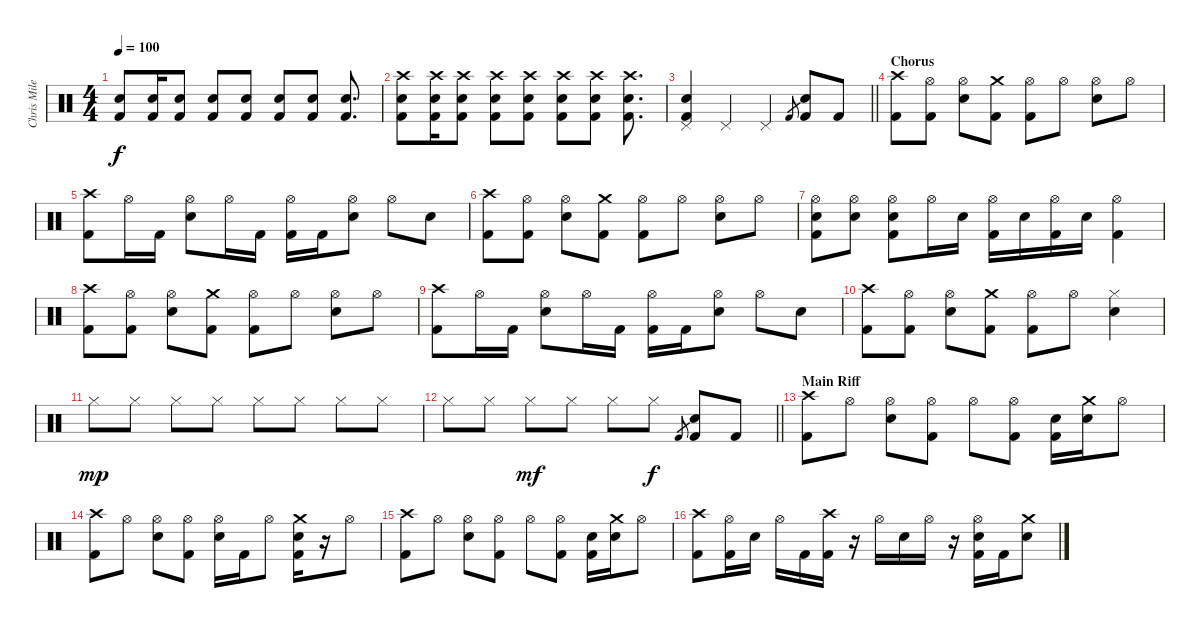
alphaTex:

\track ("Chris Mileski" "Chris Mile") {instrument percussion}
\staff {score}
\articulation defaults
\ts (4 4)
\tempo 100
\clef neutral
\ks c
("Electric Snare (hit)" "Kick (hit) 2").8{dy f} ("Electric Snare (hit)" "Kick (hit) 2").16 ("Electric Snare (hit)" "Kick (hit) 2").8 ("Electric Snare (hit)" "Kick (hit) 2").8 ("Electric Snare (hit)" "Kick (hit) 2").8 ("Electric Snare (hit)" "Kick (hit) 2").8 ("Electric Snare (hit)" "Kick (hit) 2").8 ("Electric Snare (hit)" "Kick (hit) 2").8{d} |
("Crash high (hit)" "Electric Snare (hit)" "Kick (hit) 2").8 ("Crash high (hit)" "Electric Snare (hit)" "Kick (hit) 2").16 ("Crash high (hit)" "Electric Snare (hit)" "Kick (hit) 2").8 ("Crash high (hit)" "Electric Snare (hit)" "Kick (hit) 2").8 ("Crash high (hit)" "Electric Snare (hit)" "Kick (hit) 2").8 ("Crash high (hit)" "Electric Snare (hit)" "Kick (hit) 2").8 ("Crash high (hit)" "Electric Snare (hit)" "Kick (hit) 2").8 ("Crash high (hit)" "Electric Snare (hit)" "Kick (hit) 2").8{d} |
\barLineRight lightlight
("Pedal Hi-Hat (hit)" "Electric Snare (hit)" "Kick (hit) 2").4 "Pedal Hi-Hat (hit)".4 "Pedal Hi-Hat (hit)".4 "Kick (hit) 2".8{gr} ("Electric Snare (hit)" "Kick (hit) 2").8 "Kick (hit) 2".8 |
\section ("" "Chorus")
("Crash high (hit)" "Kick (hit) 2").8 ("Hi-Hat (open)" "Kick (hit) 2").8 ("Hi-Hat (open)" "Electric Snare (hit)").8 ("Crash medium (hit)" "Kick (hit) 2").8 ("Hi-Hat (open)" "Kick (hit) 2").8 "Hi-Hat (open)".8 ("Hi-Hat (open)" "Electric Snare (hit)").8 "Hi-Hat (open)".8 |
("Crash high (hit)" "Kick (hit) 2").8 "Hi-Hat (open)".16 "Kick (hit) 2".16 ("Hi-Hat (open)" "Electric Snare (hit)").8 "Hi-Hat (open)".16 "Kick (hit) 2".16 ("Hi-Hat (open)" "Kick (hit) 2").16 "Kick (hit) 2".16 ("Hi-Hat (open)" "Electric Snare (hit)").8 "Hi-Hat (open)".8 "Electric Snare (hit)".8 |
("Crash high (hit)" "Kick (hit) 2").8 ("Hi-Hat (open)" "Kick (hit) 2").8 ("Hi-Hat (open)" "Electric Snare (hit)").8 ("Crash medium (hit)" "Kick (hit) 2").8 ("Hi-Hat (open)" "Kick (hit) 2").8 "Hi-Hat (open)".8 ("Hi-Hat (open)" "Electric Snare (hit)").8 "Hi-Hat (open)".8 |
("Hi-Hat (open)" "Electric Snare (hit)" "Kick (hit) 2").8 ("Hi-Hat (open)" "Electric Snare (hit)").8 ("Hi-Hat (open)" "Electric Snare (hit)" "Kick (hit) 2").8 "Hi-Hat (open)".16 "Electric Snare (hit)".16 ("Hi-Hat (open)" "Kick (hit) 2").16 "Electric Snare (hit)".16 ("Hi-Hat (open)" "Kick (hit) 2").16 "Electric Snare (hit)".16 ("Hi-Hat (open)" "Kick (hit) 2").4 |
("Crash high (hit)" "Kick (hit) 2").8 ("Hi-Hat (open)" "Kick (hit) 2").8 ("Hi-Hat (open)" "Electric Snare (hit)").8 ("Crash medium (hit)" "Kick (hit) 2").8 ("Hi-Hat (open)" "Kick (hit) 2").8 "Hi-Hat (open)".8 ("Hi-Hat (open)" "Electric Snare (hit)").8 "Hi-Hat (open)".8 |
("Crash high (hit)" "Kick (hit) 2").8 "Hi-Hat (open)".16 "Kick (hit) 2".16 ("Hi-Hat (open)" "Electric Snare (hit)").8 "Hi-Hat (open)".16 "Kick (hit) 2".16 ("Hi-Hat (open)" "Kick (hit) 2").16 "Kick (hit) 2".16 ("Hi-Hat (open)" "Electric Snare (hit)").8 "Hi-Hat (open)".8 "Electric Snare (hit)".8 |
("Crash high (hit)" "Kick (hit) 2").8 ("Hi-Hat (open)" "Kick (hit) 2").8 ("Hi-Hat (open)" "Electric Snare (hit)").8 ("Crash medium (hit)" "Kick (hit) 2").8 ("Hi-Hat (open)" "Kick (hit) 2").8 "Hi-Hat (open)".8 ("Hi-Hat (closed)" "Electric Snare (hit)").4 |
"Hi-Hat (closed)".8{dy mp} "Hi-Hat (closed)".8 "Hi-Hat (closed)".8 "Hi-Hat (closed)".8 "Hi-Hat (closed)".8 "Hi-Hat (closed)".8 "Hi-Hat (closed)".8 "Hi-Hat (closed)".8 |
\barLineRight lightlight "Hi-Hat (closed)".8 "Hi-Hat (closed)".8 "Hi-Hat (closed)".8{dy mf} "Hi-Hat (closed)".8 "Hi-Hat (closed)".8 "Hi-Hat (closed)".8{dy f} "Kick (hit) 2".8{gr}
("Electric Snare (hit)" "Kick (hit) 2").8 "Kick (hit) 2".8 |
\section ("" "Main Riff")
("Crash high (hit)" "Kick (hit) 2").8 "Hi-Hat (open)".8 ("Hi-Hat (open)" "Electric Snare (hit)").8 ("Hi-Hat (open)" "Kick (hit) 2").8 "Hi-Hat (open)".8 ("Hi-Hat (open)" "Kick (hit) 2").8 ("Electric Snare (hit)" "Kick (hit) 2").16 ("Crash medium (hit)" "Electric Snare (hit)").16 "Hi-Hat (open)".8 |
("Crash high (hit)" "Kick (hit) 2").8 "Hi-Hat (open)".8 ("Hi-Hat (open)" "Electric Snare (hit)").8 ("Hi-Hat (open)" "Kick (hit) 2").8 ("Hi-Hat (open)" "Electric Snare (hit)").16 "Kick (hit) 2".16 "Hi-Hat (open)".8 ("Crash medium (hit)" "Electric Snare (hit)" "Kick (hit) 2").16 r.16 "Hi-Hat (open)".8 |
("Crash high (hit)" "Kick (hit) 2").8 "Hi-Hat (open)".8 ("Hi-Hat (open)" "Electric Snare (hit)").8 ("Hi-Hat (open)" "Kick (hit) 2").8 "Hi-Hat (open)".8 ("Hi-Hat (open)" "Kick (hit) 2").8 ("Electric Snare (hit)" "Kick (hit) 2").16 ("Crash medium (hit)" "Electric Snare (hit)").16 "Hi-Hat (open)".8 |
("Crash high (hit)" "Kick (hit) 2").8 ("Hi-Hat (open)" "Kick (hit) 2").16 "Electric Snare (hit)".16 "Hi-Hat (open)".16 "Kick (hit) 2".16 ("Crash high (hit)" "Kick (hit) 2").16 r.16 "Hi-Hat (open)".16 "Electric Snare (hit)".16 "Hi-Hat (open)".16 r.16 ("Hi-Hat (open)" "Electric Snare (hit)" "Kick (hit) 2").16 "Kick (hit) 2".16 ("Crash medium (hit)" "Electric Snare (hit)").8
